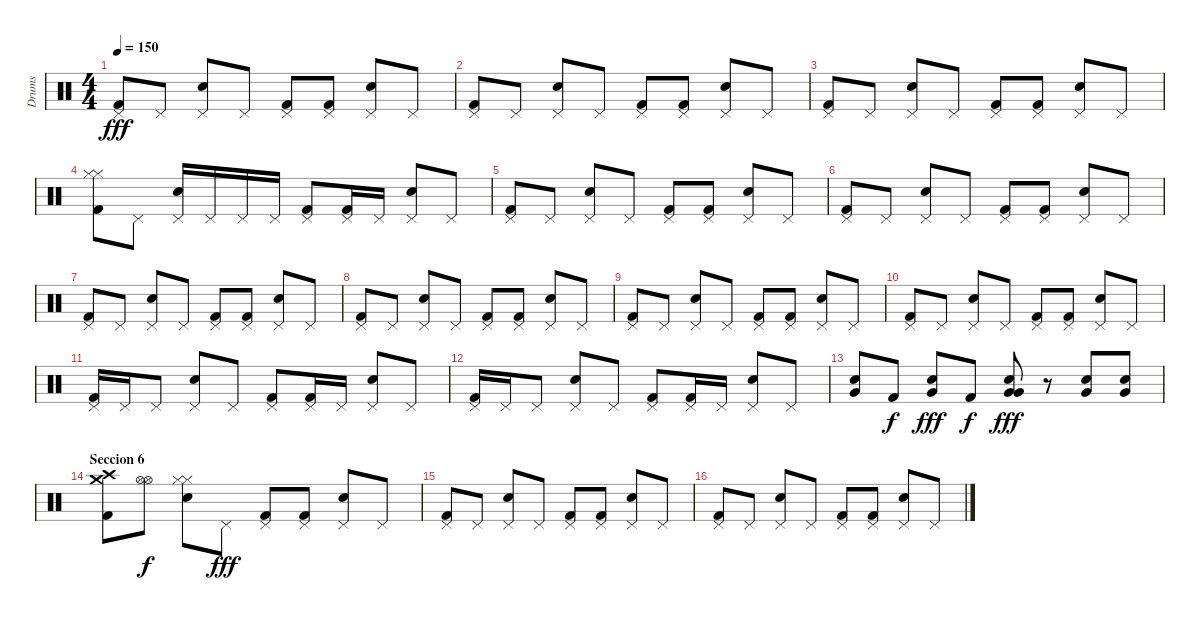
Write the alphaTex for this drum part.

\track ("Drums" "Drums") {instrument percussion}
\staff {score}
\articulation defaults
\ts (4 4)
\tempo 150
\clef neutral
\ks c
("Pedal Hi-Hat (hit)" "Kick (hit) 2").8{dy fff} "Pedal Hi-Hat (hit)".8 ("Pedal Hi-Hat (hit)" "Snare (hit) 2").8 "Pedal Hi-Hat (hit)".8 ("Pedal Hi-Hat (hit)" "Kick (hit) 2").8 ("Pedal Hi-Hat (hit)" "Kick (hit) 2").8 ("Pedal Hi-Hat (hit)" "Snare (hit) 2").8 "Pedal Hi-Hat (hit)".8 |
("Pedal Hi-Hat (hit)" "Kick (hit) 2").8 "Pedal Hi-Hat (hit)".8 ("Pedal Hi-Hat (hit)" "Snare (hit) 2").8 "Pedal Hi-Hat (hit)".8 ("Pedal Hi-Hat (hit)" "Kick (hit) 2").8 ("Pedal Hi-Hat (hit)" "Kick (hit) 2").8 ("Pedal Hi-Hat (hit)" "Snare (hit) 2").8 "Pedal Hi-Hat (hit)".8 |
("Pedal Hi-Hat (hit)" "Kick (hit) 2").8 "Pedal Hi-Hat (hit)".8 ("Pedal Hi-Hat (hit)" "Snare (hit) 2").8 "Pedal Hi-Hat (hit)".8 ("Pedal Hi-Hat (hit)" "Kick (hit) 2").8 ("Pedal Hi-Hat (hit)" "Kick (hit) 2").8 ("Pedal Hi-Hat (hit)" "Snare (hit) 2").8 "Pedal Hi-Hat (hit)".8 |
("Hi-Hat (closed)" "Hi-Hat (closed)" "Kick (hit) 2").8 "Pedal Hi-Hat (hit)".8 ("Pedal Hi-Hat (hit)" "Snare (hit) 2").16 "Pedal Hi-Hat (hit)".16 "Pedal Hi-Hat (hit)".16 "Pedal Hi-Hat (hit)".16 ("Pedal Hi-Hat (hit)" "Kick (hit) 2").8 ("Pedal Hi-Hat (hit)" "Kick (hit) 2").16 "Pedal Hi-Hat (hit)".16 ("Pedal Hi-Hat (hit)" "Snare (hit) 2").8 "Pedal Hi-Hat (hit)".8 |
("Pedal Hi-Hat (hit)" "Kick (hit) 2").8 "Pedal Hi-Hat (hit)".8 ("Pedal Hi-Hat (hit)" "Snare (hit) 2").8 "Pedal Hi-Hat (hit)".8 ("Pedal Hi-Hat (hit)" "Kick (hit) 2").8 ("Pedal Hi-Hat (hit)" "Kick (hit) 2").8 ("Pedal Hi-Hat (hit)" "Snare (hit) 2").8 "Pedal Hi-Hat (hit)".8 |
("Pedal Hi-Hat (hit)" "Kick (hit) 2").8 "Pedal Hi-Hat (hit)".8 ("Pedal Hi-Hat (hit)" "Snare (hit) 2").8 "Pedal Hi-Hat (hit)".8 ("Pedal Hi-Hat (hit)" "Kick (hit) 2").8 ("Pedal Hi-Hat (hit)" "Kick (hit) 2").8 ("Pedal Hi-Hat (hit)" "Snare (hit) 2").8 "Pedal Hi-Hat (hit)".8 |
("Pedal Hi-Hat (hit)" "Kick (hit) 2").8 "Pedal Hi-Hat (hit)".8 ("Pedal Hi-Hat (hit)" "Snare (hit) 2").8 "Pedal Hi-Hat (hit)".8 ("Pedal Hi-Hat (hit)" "Kick (hit) 2").8 ("Pedal Hi-Hat (hit)" "Kick (hit) 2").8 ("Pedal Hi-Hat (hit)" "Snare (hit) 2").8 "Pedal Hi-Hat (hit)".8 |
("Pedal Hi-Hat (hit)" "Kick (hit) 2").8 "Pedal Hi-Hat (hit)".8 ("Pedal Hi-Hat (hit)" "Snare (hit) 2").8 "Pedal Hi-Hat (hit)".8 ("Pedal Hi-Hat (hit)" "Kick (hit) 2").8 ("Pedal Hi-Hat (hit)" "Kick (hit) 2").8 ("Pedal Hi-Hat (hit)" "Snare (hit) 2").8 "Pedal Hi-Hat (hit)".8 |
("Pedal Hi-Hat (hit)" "Kick (hit) 2").8 "Pedal Hi-Hat (hit)".8 ("Pedal Hi-Hat (hit)" "Snare (hit) 2").8 "Pedal Hi-Hat (hit)".8 ("Pedal Hi-Hat (hit)" "Kick (hit) 2").8 ("Pedal Hi-Hat (hit)" "Kick (hit) 2").8 ("Pedal Hi-Hat (hit)" "Snare (hit) 2").8 "Pedal Hi-Hat (hit)".8 |
("Pedal Hi-Hat (hit)" "Kick (hit) 2").8 "Pedal Hi-Hat (hit)".8 ("Pedal Hi-Hat (hit)" "Snare (hit) 2").8 "Pedal Hi-Hat (hit)".8 ("Pedal Hi-Hat (hit)" "Kick (hit) 2").8 ("Pedal Hi-Hat (hit)" "Kick (hit) 2").8 ("Pedal Hi-Hat (hit)" "Snare (hit) 2").8 "Pedal Hi-Hat (hit)".8 |
("Pedal Hi-Hat (hit)" "Kick (hit) 2").16 "Pedal Hi-Hat (hit)".16 "Pedal Hi-Hat (hit)".8 ("Pedal Hi-Hat (hit)" "Snare (hit) 2").8 "Pedal Hi-Hat (hit)".8 ("Pedal Hi-Hat (hit)" "Kick (hit) 2").8 ("Pedal Hi-Hat (hit)" "Kick (hit) 2").16 "Pedal Hi-Hat (hit)".16 ("Pedal Hi-Hat (hit)" "Snare (hit) 2").8 "Pedal Hi-Hat (hit)".8 |
("Pedal Hi-Hat (hit)" "Kick (hit) 2").16 "Pedal Hi-Hat (hit)".16 "Pedal Hi-Hat (hit)".8 ("Pedal Hi-Hat (hit)" "Snare (hit) 2").8 "Pedal Hi-Hat (hit)".8 ("Pedal Hi-Hat (hit)" "Kick (hit) 2").8 ("Pedal Hi-Hat (hit)" "Kick (hit) 2").16 "Pedal Hi-Hat (hit)".16 ("Pedal Hi-Hat (hit)" "Snare (hit) 2").8 "Pedal Hi-Hat (hit)".8 |
("Snare (hit) 2" "Very Low Tom (hit)").8 "Kick (hit) 2".8{dy f} ("Snare (hit) 2" "Very Low Tom (hit)").8{dy fff} "Kick (hit) 2".8{dy f} ("Snare (hit) 2" "Very Low Tom (hit)" "Very Low Tom (hit)").8{dy fff} r.8 ("Snare (hit) 2" "Very Low Tom (hit)").8 ("Snare (hit) 2" "Very Low Tom (hit)").8 |
\section ("" "Seccion 6")
("Crash medium (hit)" "Crash high (hit)" "Kick (hit) 2").8 ("Hi-Hat (open)" "Hi-Hat (open)").8{dy f} ("Hi-Hat (closed)" "Hi-Hat (closed)" "Snare (hit) 2").8 "Pedal Hi-Hat (hit)".8{dy fff} ("Pedal Hi-Hat (hit)" "Kick (hit) 2").8 ("Pedal Hi-Hat (hit)" "Kick (hit) 2").8 ("Pedal Hi-Hat (hit)" "Snare (hit) 2").8 "Pedal Hi-Hat (hit)".8 |
("Pedal Hi-Hat (hit)" "Kick (hit) 2").8 "Pedal Hi-Hat (hit)".8 ("Pedal Hi-Hat (hit)" "Snare (hit) 2").8 "Pedal Hi-Hat (hit)".8 ("Pedal Hi-Hat (hit)" "Kick (hit) 2").8 ("Pedal Hi-Hat (hit)" "Kick (hit) 2").8 ("Pedal Hi-Hat (hit)" "Snare (hit) 2").8 "Pedal Hi-Hat (hit)".8 |
("Pedal Hi-Hat (hit)" "Kick (hit) 2").8 "Pedal Hi-Hat (hit)".8 ("Pedal Hi-Hat (hit)" "Snare (hit) 2").8 "Pedal Hi-Hat (hit)".8 ("Pedal Hi-Hat (hit)" "Kick (hit) 2").8 ("Pedal Hi-Hat (hit)" "Kick (hit) 2").8 ("Pedal Hi-Hat (hit)" "Snare (hit) 2").8 "Pedal Hi-Hat (hit)".8
